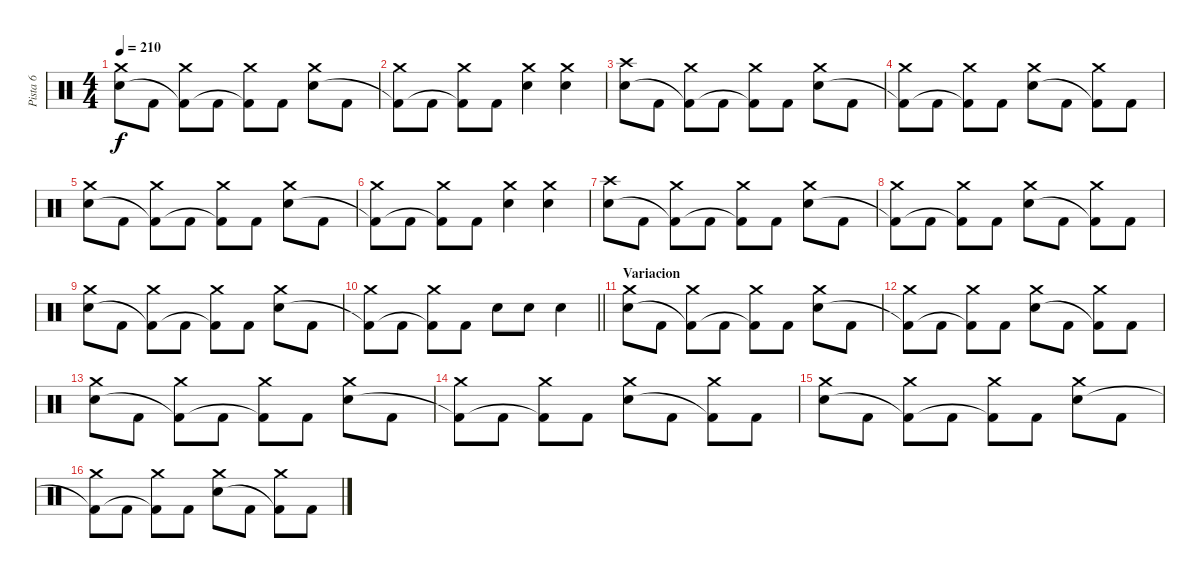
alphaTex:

\track ("Pista 6" "Pista 6") {instrument percussion}
\staff {score}
\articulation defaults
\ts (4 4)
\tempo 210
\clef neutral
\ks c
("Crash medium (hit)" "Electric Snare (hit)").8{dy f} "Kick (hit) 2".8 ("Crash medium (hit)" "Kick (hit) 2"{t}).8 "Kick (hit) 2".8 ("Crash medium (hit)" "Kick (hit) 2"{t}).8 "Kick (hit) 2".8 ("Crash medium (hit)" "Electric Snare (hit)").8 "Kick (hit) 2".8 |
("Crash medium (hit)" "Kick (hit) 2"{t}).8 "Kick (hit) 2".8 ("Crash medium (hit)" "Kick (hit) 2"{t}).8 "Kick (hit) 2".8 ("Crash medium (hit)" "Electric Snare (hit)").4 ("Crash medium (hit)" "Electric Snare (hit)").4 |
("Crash high (hit)" "Electric Snare (hit)").8 "Kick (hit) 2".8 ("Crash medium (hit)" "Kick (hit) 2"{t}).8 "Kick (hit) 2".8 ("Crash medium (hit)" "Kick (hit) 2"{t}).8 "Kick (hit) 2".8 ("Crash medium (hit)" "Electric Snare (hit)").8 "Kick (hit) 2".8 |
("Crash medium (hit)" "Kick (hit) 2"{t}).8 "Kick (hit) 2".8 ("Crash medium (hit)" "Kick (hit) 2"{t}).8 "Kick (hit) 2".8 ("Crash medium (hit)" "Electric Snare (hit)").8 "Kick (hit) 2".8 ("Crash medium (hit)" "Kick (hit) 2"{t}).8 "Kick (hit) 2".8 |
("Crash medium (hit)" "Electric Snare (hit)").8 "Kick (hit) 2".8 ("Crash medium (hit)" "Kick (hit) 2"{t}).8 "Kick (hit) 2".8 ("Crash medium (hit)" "Kick (hit) 2"{t}).8 "Kick (hit) 2".8 ("Crash medium (hit)" "Electric Snare (hit)").8 "Kick (hit) 2".8 |
("Crash medium (hit)" "Kick (hit) 2"{t}).8 "Kick (hit) 2".8 ("Crash medium (hit)" "Kick (hit) 2"{t}).8 "Kick (hit) 2".8 ("Crash medium (hit)" "Electric Snare (hit)").4 ("Crash medium (hit)" "Electric Snare (hit)").4 |
("Crash high (hit)" "Electric Snare (hit)").8 "Kick (hit) 2".8 ("Crash medium (hit)" "Kick (hit) 2"{t}).8 "Kick (hit) 2".8 ("Crash medium (hit)" "Kick (hit) 2"{t}).8 "Kick (hit) 2".8 ("Crash medium (hit)" "Electric Snare (hit)").8 "Kick (hit) 2".8 |
("Crash medium (hit)" "Kick (hit) 2"{t}).8 "Kick (hit) 2".8 ("Crash medium (hit)" "Kick (hit) 2"{t}).8 "Kick (hit) 2".8 ("Crash medium (hit)" "Electric Snare (hit)").8 "Kick (hit) 2".8 ("Crash medium (hit)" "Kick (hit) 2"{t}).8 "Kick (hit) 2".8 |
("Crash medium (hit)" "Electric Snare (hit)").8 "Kick (hit) 2".8 ("Crash medium (hit)" "Kick (hit) 2"{t}).8 "Kick (hit) 2".8 ("Crash medium (hit)" "Kick (hit) 2"{t}).8 "Kick (hit) 2".8 ("Crash medium (hit)" "Electric Snare (hit)").8 "Kick (hit) 2".8 |
\barLineRight lightlight
("Crash medium (hit)" "Kick (hit) 2"{t}).8 "Kick (hit) 2".8 ("Crash medium (hit)" "Kick (hit) 2"{t}).8 "Kick (hit) 2".8 "Electric Snare (hit)".8 "Electric Snare (hit)".8 "Electric Snare (hit)".4 |
\section ("" "Variacion")
("Crash medium (hit)" "Electric Snare (hit)").8 "Kick (hit) 2".8 ("Crash medium (hit)" "Kick (hit) 2"{t}).8 "Kick (hit) 2".8 ("Crash medium (hit)" "Kick (hit) 2"{t}).8 "Kick (hit) 2".8 ("Crash medium (hit)" "Electric Snare (hit)").8 "Kick (hit) 2".8 |
("Crash medium (hit)" "Kick (hit) 2"{t}).8 "Kick (hit) 2".8 ("Crash medium (hit)" "Kick (hit) 2"{t}).8 "Kick (hit) 2".8 ("Crash medium (hit)" "Electric Snare (hit)").8 "Kick (hit) 2".8 ("Crash medium (hit)" "Kick (hit) 2"{t}).8 "Kick (hit) 2".8 |
("Crash medium (hit)" "Electric Snare (hit)").8 "Kick (hit) 2".8 ("Crash medium (hit)" "Kick (hit) 2"{t}).8 "Kick (hit) 2".8 ("Crash medium (hit)" "Kick (hit) 2"{t}).8 "Kick (hit) 2".8 ("Crash medium (hit)" "Electric Snare (hit)").8 "Kick (hit) 2".8 |
("Crash medium (hit)" "Kick (hit) 2"{t}).8 "Kick (hit) 2".8 ("Crash medium (hit)" "Kick (hit) 2"{t}).8 "Kick (hit) 2".8 ("Crash medium (hit)" "Electric Snare (hit)").8 "Kick (hit) 2".8 ("Crash medium (hit)" "Kick (hit) 2"{t}).8 "Kick (hit) 2".8 |
("Crash medium (hit)" "Electric Snare (hit)").8 "Kick (hit) 2".8 ("Crash medium (hit)" "Kick (hit) 2"{t}).8 "Kick (hit) 2".8 ("Crash medium (hit)" "Kick (hit) 2"{t}).8 "Kick (hit) 2".8 ("Crash medium (hit)" "Electric Snare (hit)").8 "Kick (hit) 2".8 |
("Crash medium (hit)" "Kick (hit) 2"{t}).8 "Kick (hit) 2".8 ("Crash medium (hit)" "Kick (hit) 2"{t}).8 "Kick (hit) 2".8 ("Crash medium (hit)" "Electric Snare (hit)").8 "Kick (hit) 2".8 ("Crash medium (hit)" "Kick (hit) 2"{t}).8 "Kick (hit) 2".8
